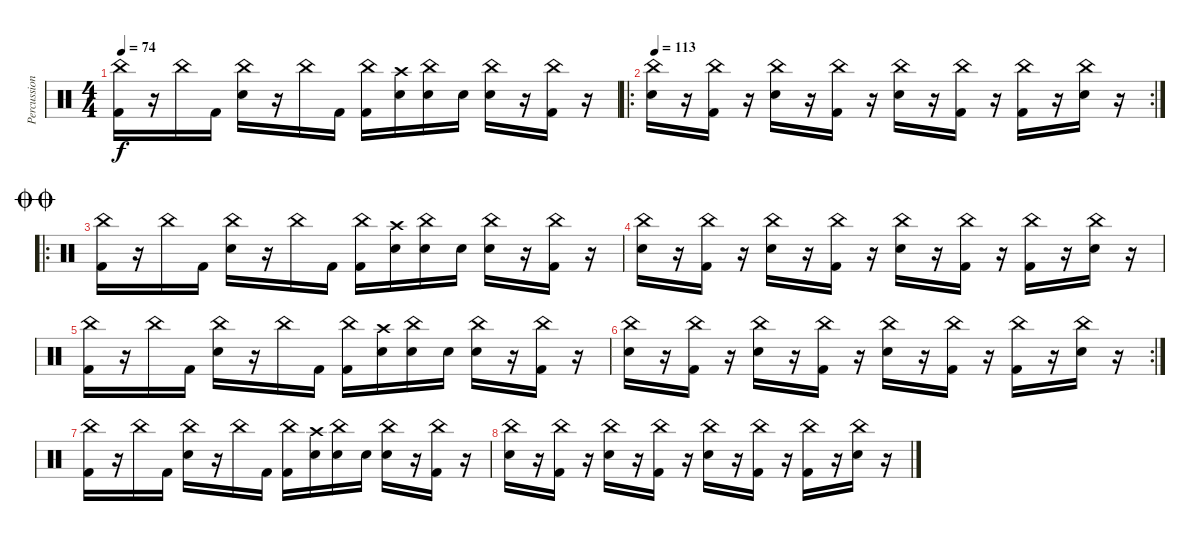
\track ("Percussion" "Percussion") {instrument percussion}
\staff {score}
\articulation defaults
\ts (4 4)
\tempo 74
\clef neutral
\ks c
("Kick (hit) 2" "China (hit)").16{dy f} r.16 "China (hit)".16 "Kick (hit) 2".16 ("Electric Snare (hit)" "China (hit)").16 r.16 "China (hit)".16 "Kick (hit) 2".16 ("Kick (hit) 2" "China (hit)").16 ("Electric Snare (hit)" "Crash high (hit)").16 ("Electric Snare (hit)" "China (hit)").16 "Electric Snare (hit)".16 ("Electric Snare (hit)" "China (hit)").16 r.16 ("Kick (hit) 2" "China (hit)").16 r.16 |
\ro
\rc 2
\tempo 113
("Electric Snare (hit)" "China (hit)").16 r.16 ("Kick (hit) 2" "China (hit)").16 r.16 ("Electric Snare (hit)" "China (hit)").16 r.16 ("Kick (hit) 2" "China (hit)").16 r.16 ("Electric Snare (hit)" "China (hit)").16 r.16 ("Kick (hit) 2" "China (hit)").16 r.16 ("Kick (hit) 2" "China (hit)").16 r.16 ("Electric Snare (hit)" "China (hit)").16 r.16 |
\ro
\jump doublecoda
("Kick (hit) 2" "China (hit)").16 r.16 "China (hit)".16 "Kick (hit) 2".16 ("Electric Snare (hit)" "China (hit)").16 r.16 "China (hit)".16 "Kick (hit) 2".16 ("Kick (hit) 2" "China (hit)").16 ("Electric Snare (hit)" "Crash high (hit)").16 ("Electric Snare (hit)" "China (hit)").16 "Electric Snare (hit)".16 ("Electric Snare (hit)" "China (hit)").16 r.16 ("Kick (hit) 2" "China (hit)").16 r.16 |
("Electric Snare (hit)" "China (hit)").16 r.16 ("Kick (hit) 2" "China (hit)").16 r.16 ("Electric Snare (hit)" "China (hit)").16 r.16 ("Kick (hit) 2" "China (hit)").16 r.16 ("Electric Snare (hit)" "China (hit)").16 r.16 ("Kick (hit) 2" "China (hit)").16 r.16 ("Kick (hit) 2" "China (hit)").16 r.16 ("Electric Snare (hit)" "China (hit)").16 r.16 |
("Kick (hit) 2" "China (hit)").16 r.16 "China (hit)".16 "Kick (hit) 2".16 ("Electric Snare (hit)" "China (hit)").16 r.16 "China (hit)".16 "Kick (hit) 2".16 ("Kick (hit) 2" "China (hit)").16 ("Electric Snare (hit)" "Crash high (hit)").16 ("Electric Snare (hit)" "China (hit)").16 "Electric Snare (hit)".16 ("Electric Snare (hit)" "China (hit)").16 r.16 ("Kick (hit) 2" "China (hit)").16 r.16 |
\rc 2
("Electric Snare (hit)" "China (hit)").16 r.16 ("Kick (hit) 2" "China (hit)").16 r.16 ("Electric Snare (hit)" "China (hit)").16 r.16 ("Kick (hit) 2" "China (hit)").16 r.16 ("Electric Snare (hit)" "China (hit)").16 r.16 ("Kick (hit) 2" "China (hit)").16 r.16 ("Kick (hit) 2" "China (hit)").16 r.16 ("Electric Snare (hit)" "China (hit)").16 r.16 |
("Kick (hit) 2" "China (hit)").16 r.16 "China (hit)".16 "Kick (hit) 2".16 ("Electric Snare (hit)" "China (hit)").16 r.16 "China (hit)".16 "Kick (hit) 2".16 ("Kick (hit) 2" "China (hit)").16 ("Electric Snare (hit)" "Crash high (hit)").16 ("Electric Snare (hit)" "China (hit)").16 "Electric Snare (hit)".16 ("Electric Snare (hit)" "China (hit)").16 r.16 ("Kick (hit) 2" "China (hit)").16 r.16 |
("Electric Snare (hit)" "China (hit)").16 r.16 ("Kick (hit) 2" "China (hit)").16 r.16 ("Electric Snare (hit)" "China (hit)").16 r.16 ("Kick (hit) 2" "China (hit)").16 r.16 ("Electric Snare (hit)" "China (hit)").16 r.16 ("Kick (hit) 2" "China (hit)").16 r.16 ("Kick (hit) 2" "China (hit)").16 r.16 ("Electric Snare (hit)" "China (hit)").16 r.16
